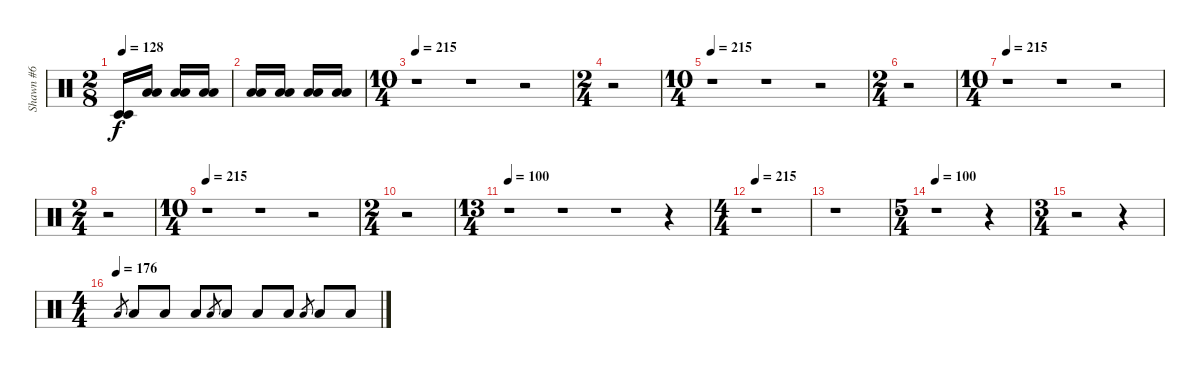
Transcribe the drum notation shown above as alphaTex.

\track ("Shawn #6" "Shawn #6") {instrument percussion}
\staff {score}
\articulation defaults
\ts (2 8)
\tempo 128
\clef neutral
\ks c
("Timbale low (hit)" "Timbale low (hit)").16{dy f} ("Low Floor Tom (hit)" "Low Floor Tom (hit)").16 ("Low Floor Tom (hit)" "Low Floor Tom (hit)").16 ("Low Floor Tom (hit)" "Low Floor Tom (hit)").16 |
("Low Floor Tom (hit)" "Low Floor Tom (hit)").16 ("Low Floor Tom (hit)" "Low Floor Tom (hit)").16 ("Low Floor Tom (hit)" "Low Floor Tom (hit)").16 ("Low Floor Tom (hit)" "Low Floor Tom (hit)").16 |
\ts (10 4)
\tempo 215
r.1 r.1 r.2 |
\ts (2 4)
r.2 |
\ts (10 4)
\tempo 215
r.1 r.1 r.2 |
\ts (2 4)
r.2 |
\ts (10 4)
\tempo 215
r.1 r.1 r.2 |
\ts (2 4)
r.2 |
\ts (10 4)
\tempo 215
r.1 r.1 r.2 |
\ts (2 4)
r.2 |
\ts (13 4)
\tempo 100
r.1 r.1 r.1 r.4 |
\ts (4 4)
\tempo 215
r.1 |
r.1 |
\ts (5 4)
\tempo 100
r.1 r.4 |
\ts (3 4)
r.2 r.4 |
\ts (4 4)
\tempo (176)
"Low Floor Tom (hit)"{sl}.8{gr} "Low Floor Tom (hit)".8{volume 16} "Low Floor Tom (hit)".8 "Low Floor Tom (hit)".8 "Low Floor Tom (hit)"{sl}.8{gr} "Low Floor Tom (hit)".8 "Low Floor Tom (hit)".8 "Low Floor Tom (hit)".8 "Low Floor Tom (hit)"{sl}.8{gr} "Low Floor Tom (hit)".8 "Low Floor Tom (hit)".8
